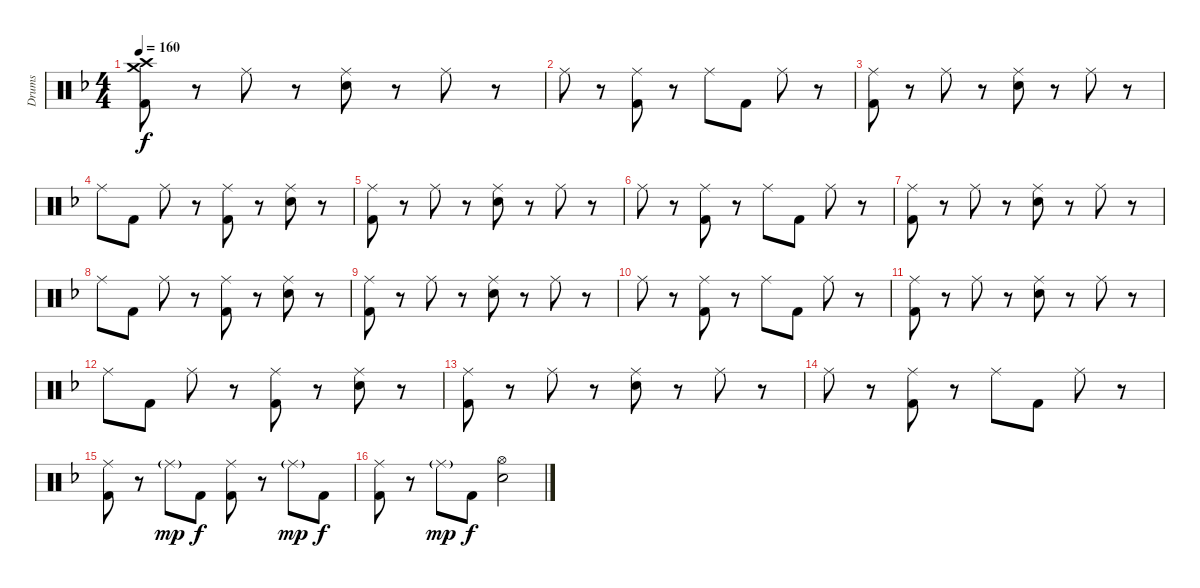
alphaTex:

\track ("Drums" "Drums") {instrument percussion}
\staff {score}
\articulation defaults
\ts (4 4)
\tempo 160
\clef neutral
\ks dminor
("Crash high (hit)" "Crash medium (hit)" "Kick (hit) 2").8{dy f} r.8 "Ride (middle)".8 r.8 ("Ride (middle)" "Electric Snare (hit)").8 r.8 "Ride (middle)".8 r.8 |
"Ride (middle)".8 r.8 ("Ride (middle)" "Kick (hit) 2").8 r.8 "Ride (middle)".8 "Kick (hit) 2".8 "Ride (middle)".8 r.8 |
("Ride (middle)" "Kick (hit) 2").8 r.8 "Ride (middle)".8 r.8 ("Ride (middle)" "Electric Snare (hit)").8 r.8 "Ride (middle)".8 r.8 |
"Ride (middle)".8 "Kick (hit) 2".8 "Ride (middle)".8 r.8 ("Ride (middle)" "Kick (hit) 2").8 r.8 ("Ride (middle)" "Electric Snare (hit)").8 r.8 |
("Ride (middle)" "Kick (hit) 2").8 r.8 "Ride (middle)".8 r.8 ("Ride (middle)" "Electric Snare (hit)").8 r.8 "Ride (middle)".8 r.8 |
"Ride (middle)".8 r.8 ("Ride (middle)" "Kick (hit) 2").8 r.8 "Ride (middle)".8 "Kick (hit) 2".8 "Ride (middle)".8 r.8 |
("Ride (middle)" "Kick (hit) 2").8 r.8 "Ride (middle)".8 r.8 ("Ride (middle)" "Electric Snare (hit)").8 r.8 "Ride (middle)".8 r.8 |
"Ride (middle)".8 "Kick (hit) 2".8 "Ride (middle)".8 r.8 ("Ride (middle)" "Kick (hit) 2").8 r.8 ("Ride (middle)" "Electric Snare (hit)").8 r.8 |
("Ride (middle)" "Kick (hit) 2").8 r.8 "Ride (middle)".8 r.8 ("Ride (middle)" "Electric Snare (hit)").8 r.8 "Ride (middle)".8 r.8 |
"Ride (middle)".8 r.8 ("Ride (middle)" "Kick (hit) 2").8 r.8 "Ride (middle)".8 "Kick (hit) 2".8 "Ride (middle)".8 r.8 |
("Ride (middle)" "Kick (hit) 2").8 r.8 "Ride (middle)".8 r.8 ("Ride (middle)" "Electric Snare (hit)").8 r.8 "Ride (middle)".8 r.8 |
"Ride (middle)".8 "Kick (hit) 2".8 "Ride (middle)".8 r.8 ("Ride (middle)" "Kick (hit) 2").8 r.8 ("Ride (middle)" "Electric Snare (hit)").8 r.8 |
("Ride (middle)" "Kick (hit) 2").8 r.8 "Ride (middle)".8 r.8 ("Ride (middle)" "Electric Snare (hit)").8 r.8 "Ride (middle)".8 r.8 |
"Ride (middle)".8 r.8 ("Ride (middle)" "Kick (hit) 2").8 r.8 "Ride (middle)".8 "Kick (hit) 2".8 "Ride (middle)".8 r.8 |
("Ride (middle)" "Kick (hit) 2").8 r.8 "Ride (middle)"{g}.8{dy mp} "Kick (hit) 2".8{dy f} ("Ride (middle)" "Kick (hit) 2").8 r.8 "Ride (middle)"{g}.8{dy mp} "Kick (hit) 2".8{dy f} |
("Ride (middle)" "Kick (hit) 2").8 r.8 "Ride (middle)"{g}.8{dy mp} "Kick (hit) 2".8{dy f} ("Hi-Hat (open)" "Electric Snare (hit)").2
